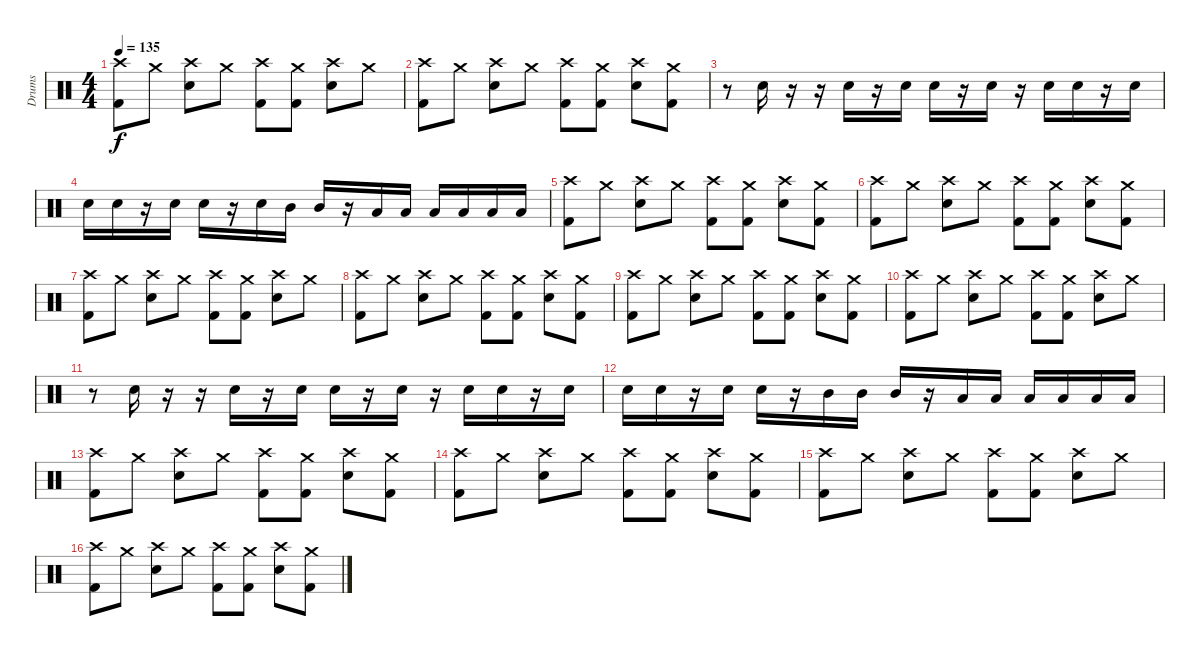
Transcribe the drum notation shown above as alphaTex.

\track ("Drums" "Drums") {instrument percussion}
\staff {score}
\articulation defaults
\ts (4 4)
\tempo 135
\clef neutral
\ks c
("Crash high (hit)" "Kick (hit) 2").8{dy f} "Crash medium (hit)".8 ("Crash high (hit)" "Snare (hit) 2").8 "Crash medium (hit)".8 ("Crash high (hit)" "Kick (hit) 2").8 ("Crash medium (hit)" "Kick (hit) 2").8 ("Crash high (hit)" "Snare (hit) 2").8 "Crash medium (hit)".8 |
("Crash high (hit)" "Kick (hit) 2").8 "Crash medium (hit)".8 ("Crash high (hit)" "Snare (hit) 2").8 "Crash medium (hit)".8 ("Crash high (hit)" "Kick (hit) 2").8 ("Crash medium (hit)" "Kick (hit) 2").8 ("Crash high (hit)" "Snare (hit) 2").8 ("Crash medium (hit)" "Kick (hit) 2").8 |
r.8 "Snare (hit) 2".16 r.16 r.16 "Snare (hit) 2".16 r.16 "Snare (hit) 2".16 "Snare (hit) 2".16 r.16 "Snare (hit) 2".16 r.16 "Snare (hit) 2".16 "Snare (hit) 2".16 r.16 "Snare (hit) 2".16 |
"Snare (hit) 2".16 "Snare (hit) 2".16 r.16 "Snare (hit) 2".16 "Snare (hit) 2".16 r.16 "Snare (hit) 2".16 "Mid Tom (hit)".16 "Mid Tom (hit)".16 r.16 "Low Tom (hit)".16 "Low Tom (hit)".16 "Low Tom (hit)".16 "Low Tom (hit)".16 "Low Tom (hit)".16 "Low Tom (hit)".16 |
("Crash high (hit)" "Kick (hit) 2").8 "Crash medium (hit)".8 ("Crash high (hit)" "Snare (hit) 2").8 "Crash medium (hit)".8 ("Crash high (hit)" "Kick (hit) 2").8 ("Crash medium (hit)" "Kick (hit) 2").8 ("Crash high (hit)" "Snare (hit) 2").8 ("Crash medium (hit)" "Kick (hit) 2").8 |
("Crash high (hit)" "Kick (hit) 2").8 "Crash medium (hit)".8 ("Crash high (hit)" "Snare (hit) 2").8 "Crash medium (hit)".8 ("Crash high (hit)" "Kick (hit) 2").8 ("Crash medium (hit)" "Kick (hit) 2").8 ("Crash high (hit)" "Snare (hit) 2").8 ("Crash medium (hit)" "Kick (hit) 2").8 |
("Crash high (hit)" "Kick (hit) 2").8 "Crash medium (hit)".8 ("Crash high (hit)" "Snare (hit) 2").8 "Crash medium (hit)".8 ("Crash high (hit)" "Kick (hit) 2").8 ("Crash medium (hit)" "Kick (hit) 2").8 ("Crash high (hit)" "Snare (hit) 2").8 "Crash medium (hit)".8 |
("Crash high (hit)" "Kick (hit) 2").8 "Crash medium (hit)".8 ("Crash high (hit)" "Snare (hit) 2").8 "Crash medium (hit)".8 ("Crash high (hit)" "Kick (hit) 2").8 ("Crash medium (hit)" "Kick (hit) 2").8 ("Crash high (hit)" "Snare (hit) 2").8 ("Crash medium (hit)" "Kick (hit) 2").8 |
("Crash high (hit)" "Kick (hit) 2").8 "Crash medium (hit)".8 ("Crash high (hit)" "Snare (hit) 2").8 "Crash medium (hit)".8 ("Crash high (hit)" "Kick (hit) 2").8 ("Crash medium (hit)" "Kick (hit) 2").8 ("Crash high (hit)" "Snare (hit) 2").8 ("Crash medium (hit)" "Kick (hit) 2").8 |
("Crash high (hit)" "Kick (hit) 2").8 "Crash medium (hit)".8 ("Crash high (hit)" "Snare (hit) 2").8 "Crash medium (hit)".8 ("Crash high (hit)" "Kick (hit) 2").8 ("Crash medium (hit)" "Kick (hit) 2").8 ("Crash high (hit)" "Snare (hit) 2").8 "Crash medium (hit)".8 |
r.8 "Snare (hit) 2".16 r.16 r.16 "Snare (hit) 2".16 r.16 "Snare (hit) 2".16 "Snare (hit) 2".16 r.16 "Snare (hit) 2".16 r.16 "Snare (hit) 2".16 "Snare (hit) 2".16 r.16 "Snare (hit) 2".16 |
"Snare (hit) 2".16 "Snare (hit) 2".16 r.16 "Snare (hit) 2".16 "Snare (hit) 2".16 r.16 "Mid Tom (hit)".16 "Mid Tom (hit)".16 "Mid Tom (hit)".16 r.16 "Low Tom (hit)".16 "Low Tom (hit)".16 "Low Tom (hit)".16 "Low Tom (hit)".16 "Low Tom (hit)".16 "Low Tom (hit)".16 |
("Crash high (hit)" "Kick (hit) 2").8 "Crash medium (hit)".8 ("Crash high (hit)" "Snare (hit) 2").8 "Crash medium (hit)".8 ("Crash high (hit)" "Kick (hit) 2").8 ("Crash medium (hit)" "Kick (hit) 2").8 ("Crash high (hit)" "Snare (hit) 2").8 ("Crash medium (hit)" "Kick (hit) 2").8 |
("Crash high (hit)" "Kick (hit) 2").8 "Crash medium (hit)".8 ("Crash high (hit)" "Snare (hit) 2").8 "Crash medium (hit)".8 ("Crash high (hit)" "Kick (hit) 2").8 ("Crash medium (hit)" "Kick (hit) 2").8 ("Crash high (hit)" "Snare (hit) 2").8 ("Crash medium (hit)" "Kick (hit) 2").8 |
("Crash high (hit)" "Kick (hit) 2").8 "Crash medium (hit)".8 ("Crash high (hit)" "Snare (hit) 2").8 "Crash medium (hit)".8 ("Crash high (hit)" "Kick (hit) 2").8 ("Crash medium (hit)" "Kick (hit) 2").8 ("Crash high (hit)" "Snare (hit) 2").8 "Crash medium (hit)".8 |
("Crash high (hit)" "Kick (hit) 2").8 "Crash medium (hit)".8 ("Crash high (hit)" "Snare (hit) 2").8 "Crash medium (hit)".8 ("Crash high (hit)" "Kick (hit) 2").8 ("Crash medium (hit)" "Kick (hit) 2").8 ("Crash high (hit)" "Snare (hit) 2").8 ("Crash medium (hit)" "Kick (hit) 2").8
